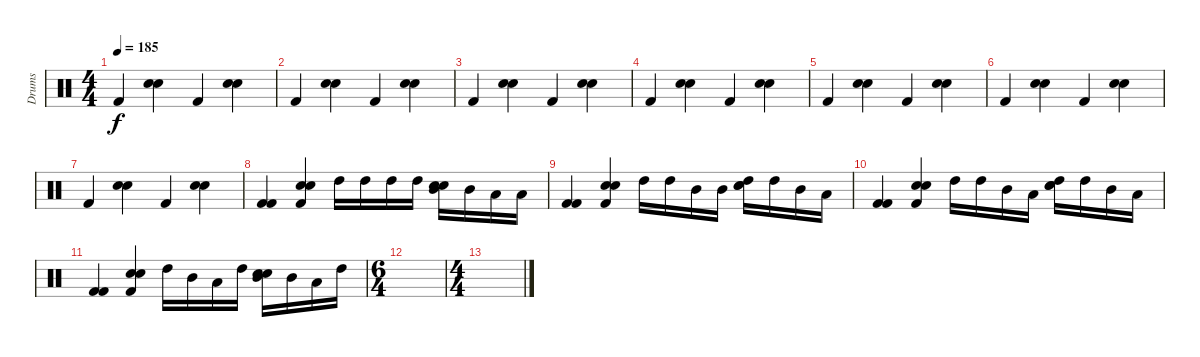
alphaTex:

\track ("Drums" "Drums") {instrument percussion}
\staff {score}
\articulation defaults
\ts (4 4)
\tempo 185
\clef neutral
\ks c "Kick (hit) 2".4{dy f}
("Electric Snare (hit)" "Snare (hit) 2").4 "Kick (hit) 2".4 ("Snare (hit) 2" "Electric Snare (hit)").4 |
"Kick (hit) 2".4 ("Electric Snare (hit)" "Snare (hit) 2").4 "Kick (hit) 2".4 ("Electric Snare (hit)" "Snare (hit) 2").4 |
"Kick (hit) 2".4 ("Electric Snare (hit)" "Snare (hit) 2").4 "Kick (hit) 2".4 ("Snare (hit) 2" "Electric Snare (hit)").4 |
"Kick (hit) 2".4 ("Electric Snare (hit)" "Snare (hit) 2").4 "Kick (hit) 2".4 ("Electric Snare (hit)" "Snare (hit) 2").4 |
"Kick (hit) 2".4 ("Electric Snare (hit)" "Snare (hit) 2").4 "Kick (hit) 2".4 ("Electric Snare (hit)" "Snare (hit) 2").4 |
"Kick (hit) 2".4 ("Electric Snare (hit)" "Snare (hit) 2").4 "Kick (hit) 2".4 ("Snare (hit) 2" "Electric Snare (hit)").4 |
"Kick (hit) 2".4 ("Electric Snare (hit)" "Snare (hit) 2").4 "Kick (hit) 2".4 ("Electric Snare (hit)" "Snare (hit) 2").4 |
("Kick (hit) 2" "Kick (hit) 2").4 ("Kick (hit) 2" "Electric Snare (hit)" "Snare (hit) 2").4 "High Tom (hit)".16 "High Tom (hit)".16 "High Tom (hit)".16 "High Tom (hit)".16 ("Mid Tom (hit)" "Electric Snare (hit)" "Snare (hit) 2").16 "Mid Tom (hit)".16 "Low Tom (hit)".16 "Low Tom (hit)".16 |
("Kick (hit) 2" "Kick (hit) 2").4 ("Kick (hit) 2" "Electric Snare (hit)" "Snare (hit) 2").4 "High Tom (hit)".16 "High Tom (hit)".16 "Mid Tom (hit)".16 "Mid Tom (hit)".16 ("High Tom (hit)" "Electric Snare (hit)" "Snare (hit) 2").16 "High Tom (hit)".16 "Mid Tom (hit)".16 "Low Tom (hit)".16 |
("Kick (hit) 2" "Kick (hit) 2").4 ("Kick (hit) 2" "Electric Snare (hit)" "Snare (hit) 2").4 "High Tom (hit)".16 "High Tom (hit)".16 "Mid Tom (hit)".16 "Low Tom (hit)".16 ("High Tom (hit)" "Electric Snare (hit)" "Snare (hit) 2").16 "High Tom (hit)".16 "Mid Tom (hit)".16 "Low Tom (hit)".16 |
("Kick (hit) 2" "Kick (hit) 2").4 ("Kick (hit) 2" "Electric Snare (hit)" "Snare (hit) 2").4 "High Tom (hit)".16 "Mid Tom (hit)".16 "Low Tom (hit)".16 "High Tom (hit)".16 ("Mid Tom (hit)" "Electric Snare (hit)" "Snare (hit) 2").16 "Mid Tom (hit)".16 "Low Tom (hit)".16 "High Tom (hit)".16 |
\ts (6 4)
|
\ts (4 4)
